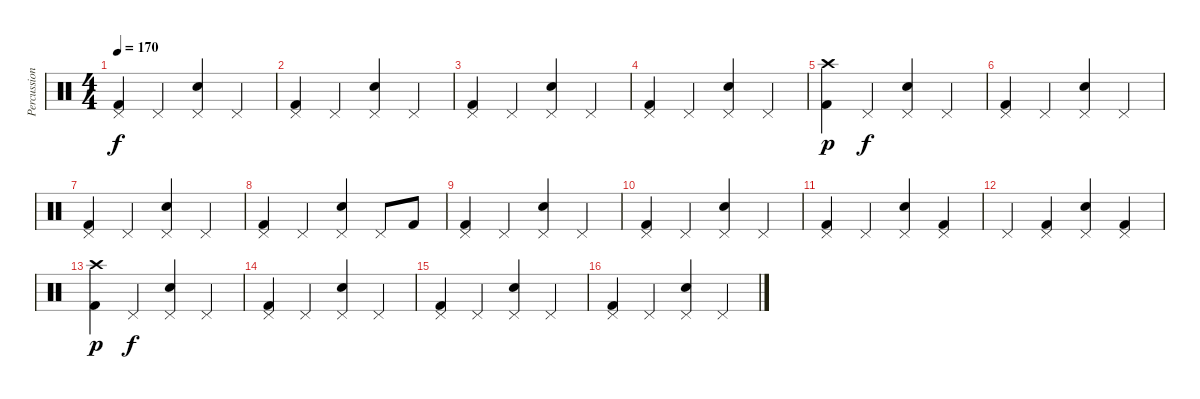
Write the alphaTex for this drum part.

\track ("Percussion" "Percussion") {instrument percussion}
\staff {score}
\articulation defaults
\ts (4 4)
\tempo 170
\clef neutral
\ks c
("Pedal Hi-Hat (hit)" "Kick (hit) 2").4{dy f} "Pedal Hi-Hat (hit)".4 ("Pedal Hi-Hat (hit)" "Snare (hit) 2").4 "Pedal Hi-Hat (hit)".4 |
("Pedal Hi-Hat (hit)" "Kick (hit) 2").4 "Pedal Hi-Hat (hit)".4 ("Pedal Hi-Hat (hit)" "Snare (hit) 2").4 "Pedal Hi-Hat (hit)".4 |
("Pedal Hi-Hat (hit)" "Kick (hit) 2").4 "Pedal Hi-Hat (hit)".4 ("Pedal Hi-Hat (hit)" "Snare (hit) 2").4 "Pedal Hi-Hat (hit)".4 |
("Pedal Hi-Hat (hit)" "Kick (hit) 2").4 "Pedal Hi-Hat (hit)".4 ("Pedal Hi-Hat (hit)" "Snare (hit) 2").4 "Pedal Hi-Hat (hit)".4 |
("Crash high (hit)" "Kick (hit) 2").4{dy p} "Pedal Hi-Hat (hit)".4{dy f} ("Pedal Hi-Hat (hit)" "Snare (hit) 2").4 "Pedal Hi-Hat (hit)".4 |
("Pedal Hi-Hat (hit)" "Kick (hit) 2").4 "Pedal Hi-Hat (hit)".4 ("Pedal Hi-Hat (hit)" "Snare (hit) 2").4 "Pedal Hi-Hat (hit)".4 |
("Pedal Hi-Hat (hit)" "Kick (hit) 2").4 "Pedal Hi-Hat (hit)".4 ("Pedal Hi-Hat (hit)" "Snare (hit) 2").4 "Pedal Hi-Hat (hit)".4 |
("Pedal Hi-Hat (hit)" "Kick (hit) 2").4 "Pedal Hi-Hat (hit)".4 ("Pedal Hi-Hat (hit)" "Snare (hit) 2").4 "Pedal Hi-Hat (hit)".8 "Kick (hit) 2".8 |
("Pedal Hi-Hat (hit)" "Kick (hit) 2").4 "Pedal Hi-Hat (hit)".4 ("Pedal Hi-Hat (hit)" "Snare (hit) 2").4 "Pedal Hi-Hat (hit)".4 |
("Pedal Hi-Hat (hit)" "Kick (hit) 2").4 "Pedal Hi-Hat (hit)".4 ("Pedal Hi-Hat (hit)" "Snare (hit) 2").4 "Pedal Hi-Hat (hit)".4 |
("Pedal Hi-Hat (hit)" "Kick (hit) 2").4 "Pedal Hi-Hat (hit)".4 ("Pedal Hi-Hat (hit)" "Snare (hit) 2").4 ("Pedal Hi-Hat (hit)" "Kick (hit) 2").4 |
"Pedal Hi-Hat (hit)".4 ("Pedal Hi-Hat (hit)" "Kick (hit) 2").4 ("Pedal Hi-Hat (hit)" "Snare (hit) 2").4 ("Pedal Hi-Hat (hit)" "Kick (hit) 2").4 |
("Crash high (hit)" "Kick (hit) 2").4{dy p} "Pedal Hi-Hat (hit)".4{dy f} ("Pedal Hi-Hat (hit)" "Snare (hit) 2").4 "Pedal Hi-Hat (hit)".4 |
("Pedal Hi-Hat (hit)" "Kick (hit) 2").4 "Pedal Hi-Hat (hit)".4 ("Pedal Hi-Hat (hit)" "Snare (hit) 2").4 "Pedal Hi-Hat (hit)".4 |
("Pedal Hi-Hat (hit)" "Kick (hit) 2").4 "Pedal Hi-Hat (hit)".4 ("Pedal Hi-Hat (hit)" "Snare (hit) 2").4 "Pedal Hi-Hat (hit)".4 |
("Pedal Hi-Hat (hit)" "Kick (hit) 2").4 "Pedal Hi-Hat (hit)".4 ("Pedal Hi-Hat (hit)" "Snare (hit) 2").4 "Pedal Hi-Hat (hit)".4
